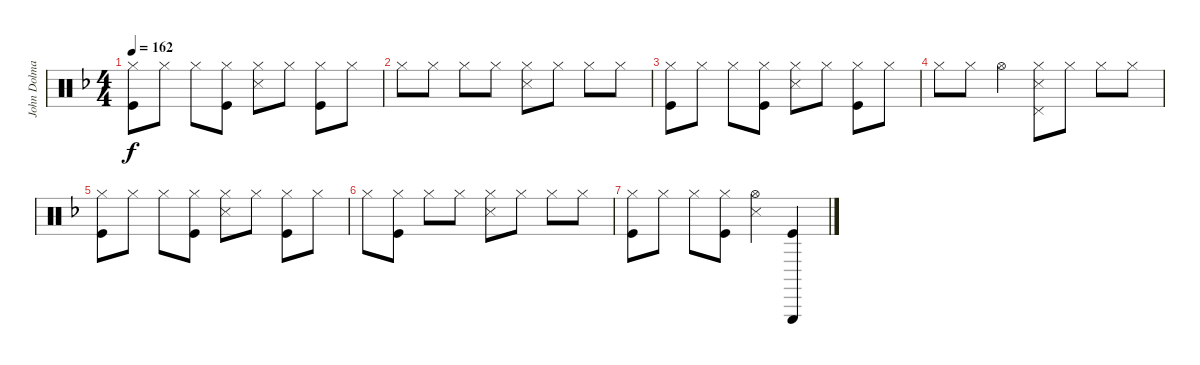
\track ("John Dolmayan" "John Dolma") {instrument percussion}
\staff {score}
\articulation defaults
\ts (4 4)
\tempo 162
\clef neutral
\ks dminor
("Hi-Hat (closed)" "Kick (hit)").8{dy f} "Hi-Hat (closed)".8 "Hi-Hat (closed)".8 ("Hi-Hat (closed)" "Kick (hit)").8 ("Hi-Hat (closed)" "Snare (side stick) 3").8 "Hi-Hat (closed)".8 ("Hi-Hat (closed)" "Kick (hit)").8 "Hi-Hat (closed)".8 |
"Hi-Hat (closed)".8 "Hi-Hat (closed)".8 "Hi-Hat (closed)".8 "Hi-Hat (closed)".8 ("Hi-Hat (closed)" "Snare (side stick) 3").8 "Hi-Hat (closed)".8 "Hi-Hat (closed)".8 "Hi-Hat (closed)".8 |
("Hi-Hat (closed)" "Kick (hit)").8 "Hi-Hat (closed)".8 "Hi-Hat (closed)".8 ("Hi-Hat (closed)" "Kick (hit)").8 ("Hi-Hat (closed)" "Snare (side stick) 3").8 "Hi-Hat (closed)".8 ("Hi-Hat (closed)" "Kick (hit)").8 "Hi-Hat (closed)".8 |
"Hi-Hat (closed)".8 "Hi-Hat (closed)".8 "Hi-Hat (open)".4 ("Hi-Hat (closed)" "Pedal Hi-Hat (hit)" "Snare (side stick) 3").8 "Hi-Hat (closed)".8 "Hi-Hat (closed)".8 "Hi-Hat (closed)".8 |
("Hi-Hat (closed)" "Kick (hit)").8 "Hi-Hat (closed)".8 "Hi-Hat (closed)".8 ("Hi-Hat (closed)" "Kick (hit)").8 ("Hi-Hat (closed)" "Snare (side stick) 3").8 "Hi-Hat (closed)".8 ("Hi-Hat (closed)" "Kick (hit)").8 "Hi-Hat (closed)".8 |
"Hi-Hat (closed)".8 ("Hi-Hat (closed)" "Kick (hit)").8 "Hi-Hat (closed)".8 "Hi-Hat (closed)".8 ("Hi-Hat (closed)" "Snare (side stick) 3").8 "Hi-Hat (closed)".8 "Hi-Hat (closed)".8 "Hi-Hat (closed)".8 |
("Hi-Hat (closed)" "Kick (hit)").8 "Hi-Hat (closed)".8 "Hi-Hat (closed)".8 ("Hi-Hat (closed)" "Kick (hit)").8 ("Hi-Hat (open)" "Snare (side stick) 3").4 ("Triangle (hit)" "Kick (hit)").4
